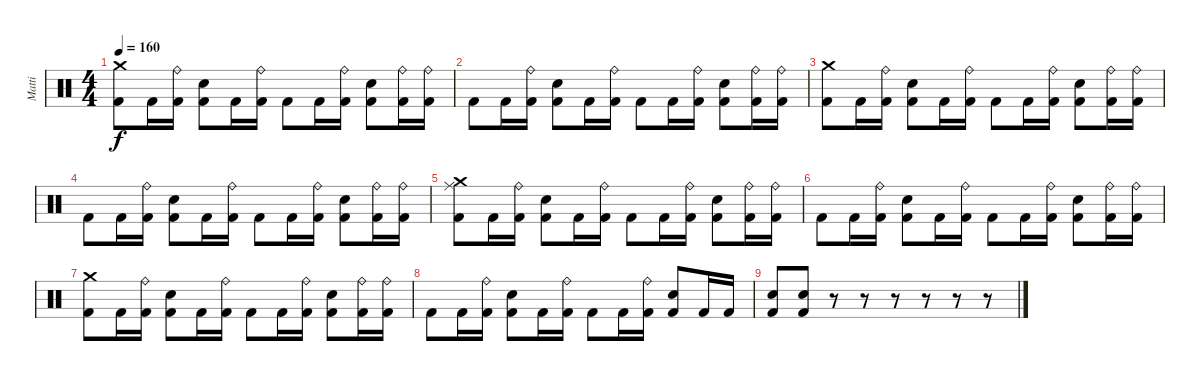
\track ("Matti" "Matti") {instrument percussion}
\staff {score}
\articulation defaults
\ts (4 4)
\tempo 160
\clef neutral
\ks c
("Crash medium (hit)" "Kick (hit) 2").8{dy f} "Kick (hit) 2".16 ("Ride (bell)" "Kick (hit) 2").16 ("Electric Snare (hit)" "Kick (hit) 2").8 "Kick (hit) 2".16 ("Ride (bell)" "Kick (hit) 2").16 "Kick (hit) 2".8 "Kick (hit) 2".16 ("Ride (bell)" "Kick (hit) 2").16 ("Electric Snare (hit)" "Kick (hit) 2").8 ("Ride (bell)" "Kick (hit) 2").16 ("Ride (bell)" "Kick (hit) 2").16 |
"Kick (hit) 2".8 "Kick (hit) 2".16 ("Ride (bell)" "Kick (hit) 2").16 ("Electric Snare (hit)" "Kick (hit) 2").8 "Kick (hit) 2".16 ("Ride (bell)" "Kick (hit) 2").16 "Kick (hit) 2".8 "Kick (hit) 2".16 ("Ride (bell)" "Kick (hit) 2").16 ("Electric Snare (hit)" "Kick (hit) 2").8 ("Ride (bell)" "Kick (hit) 2").16 ("Ride (bell)" "Kick (hit) 2").16 |
("Crash medium (hit)" "Kick (hit) 2").8 "Kick (hit) 2".16 ("Ride (bell)" "Kick (hit) 2").16 ("Electric Snare (hit)" "Kick (hit) 2").8 "Kick (hit) 2".16 ("Ride (bell)" "Kick (hit) 2").16 "Kick (hit) 2".8 "Kick (hit) 2".16 ("Ride (bell)" "Kick (hit) 2").16 ("Electric Snare (hit)" "Kick (hit) 2").8 ("Ride (bell)" "Kick (hit) 2").16 ("Ride (bell)" "Kick (hit) 2").16 |
"Kick (hit) 2".8 "Kick (hit) 2".16 ("Ride (bell)" "Kick (hit) 2").16 ("Electric Snare (hit)" "Kick (hit) 2").8 "Kick (hit) 2".16 ("Ride (bell)" "Kick (hit) 2").16 "Kick (hit) 2".8 "Kick (hit) 2".16 ("Ride (bell)" "Kick (hit) 2").16 ("Electric Snare (hit)" "Kick (hit) 2").8 ("Ride (bell)" "Kick (hit) 2").16 ("Ride (bell)" "Kick (hit) 2").16 |
("Crash medium (hit)" "Ride (middle)" "Kick (hit) 2").8{volume 16} "Kick (hit) 2".16 ("Ride (bell)" "Kick (hit) 2").16 ("Electric Snare (hit)" "Kick (hit) 2").8 "Kick (hit) 2".16 ("Ride (bell)" "Kick (hit) 2").16 "Kick (hit) 2".8 "Kick (hit) 2".16 ("Ride (bell)" "Kick (hit) 2").16 ("Electric Snare (hit)" "Kick (hit) 2").8 ("Ride (bell)" "Kick (hit) 2").16 ("Ride (bell)" "Kick (hit) 2").16 |
"Kick (hit) 2".8 "Kick (hit) 2".16 ("Ride (bell)" "Kick (hit) 2").16 ("Electric Snare (hit)" "Kick (hit) 2").8 "Kick (hit) 2".16 ("Ride (bell)" "Kick (hit) 2").16 "Kick (hit) 2".8 "Kick (hit) 2".16 ("Ride (bell)" "Kick (hit) 2").16 ("Electric Snare (hit)" "Kick (hit) 2").8 ("Ride (bell)" "Kick (hit) 2").16 ("Ride (bell)" "Kick (hit) 2").16 |
("Crash medium (hit)" "Kick (hit) 2").8 "Kick (hit) 2".16 ("Ride (bell)" "Kick (hit) 2").16 ("Electric Snare (hit)" "Kick (hit) 2").8 "Kick (hit) 2".16 ("Ride (bell)" "Kick (hit) 2").16 "Kick (hit) 2".8 "Kick (hit) 2".16 ("Ride (bell)" "Kick (hit) 2").16 ("Electric Snare (hit)" "Kick (hit) 2").8 ("Ride (bell)" "Kick (hit) 2").16 ("Ride (bell)" "Kick (hit) 2").16 |
"Kick (hit) 2".8 "Kick (hit) 2".16 ("Ride (bell)" "Kick (hit) 2").16 ("Electric Snare (hit)" "Kick (hit) 2").8 "Kick (hit) 2".16 ("Ride (bell)" "Kick (hit) 2").16 "Kick (hit) 2".8 "Kick (hit) 2".16 ("Ride (bell)" "Kick (hit) 2").16 ("Electric Snare (hit)" "Kick (hit) 2").8 "Kick (hit) 2".16 "Kick (hit) 2".16 |
("Electric Snare (hit)" "Kick (hit) 2").8 ("Electric Snare (hit)" "Kick (hit) 2").8 r.8 r.8 r.8 r.8 r.8 r.8
